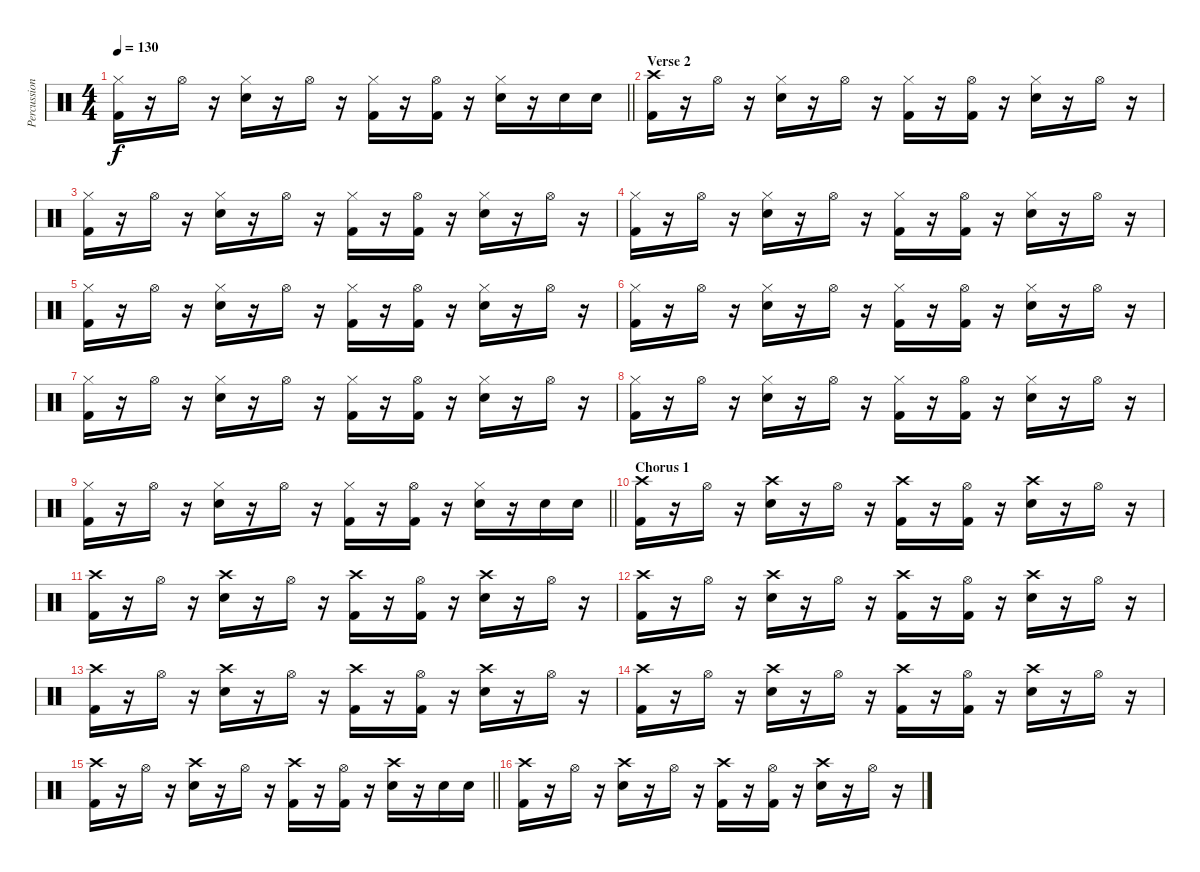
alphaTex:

\track ("Percussion" "Percussion") {instrument percussion}
\staff {score}
\articulation defaults
\ts (4 4)
\tempo 130
\clef neutral
\barLineRight lightlight
\ks c
("Hi-Hat (closed)" "Kick (hit) 2").16{dy f} r.16 "Hi-Hat (open)".16 r.16 ("Hi-Hat (closed)" "Snare (hit) 2").16 r.16 "Hi-Hat (open)".16 r.16 ("Hi-Hat (closed)" "Kick (hit) 2").16 r.16 ("Hi-Hat (open)" "Kick (hit) 2").16 r.16 ("Hi-Hat (closed)" "Snare (hit) 2").16 r.16 "Snare (hit) 2".16 "Snare (hit) 2".16 |
\section ("" "Verse 2")
("Crash high (hit)" "Kick (hit) 2").16 r.16 "Hi-Hat (open)".16 r.16 ("Hi-Hat (closed)" "Snare (hit) 2").16 r.16 "Hi-Hat (open)".16 r.16 ("Hi-Hat (closed)" "Kick (hit) 2").16 r.16 ("Hi-Hat (open)" "Kick (hit) 2").16 r.16 ("Hi-Hat (closed)" "Snare (hit) 2").16 r.16 "Hi-Hat (open)".16 r.16 |
("Hi-Hat (closed)" "Kick (hit) 2").16 r.16 "Hi-Hat (open)".16 r.16 ("Hi-Hat (closed)" "Snare (hit) 2").16 r.16 "Hi-Hat (open)".16 r.16 ("Hi-Hat (closed)" "Kick (hit) 2").16 r.16 ("Hi-Hat (open)" "Kick (hit) 2").16 r.16 ("Hi-Hat (closed)" "Snare (hit) 2").16 r.16 "Hi-Hat (open)".16 r.16 |
("Hi-Hat (closed)" "Kick (hit) 2").16 r.16 "Hi-Hat (open)".16 r.16 ("Hi-Hat (closed)" "Snare (hit) 2").16 r.16 "Hi-Hat (open)".16 r.16 ("Hi-Hat (closed)" "Kick (hit) 2").16 r.16 ("Hi-Hat (open)" "Kick (hit) 2").16 r.16 ("Hi-Hat (closed)" "Snare (hit) 2").16 r.16 "Hi-Hat (open)".16 r.16 |
("Hi-Hat (closed)" "Kick (hit) 2").16 r.16 "Hi-Hat (open)".16 r.16 ("Hi-Hat (closed)" "Snare (hit) 2").16 r.16 "Hi-Hat (open)".16 r.16 ("Hi-Hat (closed)" "Kick (hit) 2").16 r.16 ("Hi-Hat (open)" "Kick (hit) 2").16 r.16 ("Hi-Hat (closed)" "Snare (hit) 2").16 r.16 "Hi-Hat (open)".16 r.16 |
("Hi-Hat (closed)" "Kick (hit) 2").16 r.16 "Hi-Hat (open)".16 r.16 ("Hi-Hat (closed)" "Snare (hit) 2").16 r.16 "Hi-Hat (open)".16 r.16 ("Hi-Hat (closed)" "Kick (hit) 2").16 r.16 ("Hi-Hat (open)" "Kick (hit) 2").16 r.16 ("Hi-Hat (closed)" "Snare (hit) 2").16 r.16 "Hi-Hat (open)".16 r.16 |
("Hi-Hat (closed)" "Kick (hit) 2").16 r.16 "Hi-Hat (open)".16 r.16 ("Hi-Hat (closed)" "Snare (hit) 2").16 r.16 "Hi-Hat (open)".16 r.16 ("Hi-Hat (closed)" "Kick (hit) 2").16 r.16 ("Hi-Hat (open)" "Kick (hit) 2").16 r.16 ("Hi-Hat (closed)" "Snare (hit) 2").16 r.16 "Hi-Hat (open)".16 r.16 |
("Hi-Hat (closed)" "Kick (hit) 2").16 r.16 "Hi-Hat (open)".16 r.16 ("Hi-Hat (closed)" "Snare (hit) 2").16 r.16 "Hi-Hat (open)".16 r.16 ("Hi-Hat (closed)" "Kick (hit) 2").16 r.16 ("Hi-Hat (open)" "Kick (hit) 2").16 r.16 ("Hi-Hat (closed)" "Snare (hit) 2").16 r.16 "Hi-Hat (open)".16 r.16 |
\barLineRight lightlight
("Hi-Hat (closed)" "Kick (hit) 2").16 r.16 "Hi-Hat (open)".16 r.16 ("Hi-Hat (closed)" "Snare (hit) 2").16 r.16 "Hi-Hat (open)".16 r.16 ("Hi-Hat (closed)" "Kick (hit) 2").16 r.16 ("Hi-Hat (open)" "Kick (hit) 2").16 r.16 ("Hi-Hat (closed)" "Snare (hit) 2").16 r.16 "Snare (hit) 2".16 "Snare (hit) 2".16 |
\section ("" "Chorus 1")
("Crash high (hit)" "Kick (hit) 2").16 r.16 "Hi-Hat (open)".16 r.16 ("Crash high (hit)" "Snare (hit) 2").16 r.16 "Hi-Hat (open)".16 r.16 ("Crash high (hit)" "Kick (hit) 2").16 r.16 ("Hi-Hat (open)" "Kick (hit) 2").16 r.16 ("Crash high (hit)" "Snare (hit) 2").16 r.16 "Hi-Hat (open)".16 r.16 |
("Crash high (hit)" "Kick (hit) 2").16 r.16 "Hi-Hat (open)".16 r.16 ("Crash high (hit)" "Snare (hit) 2").16 r.16 "Hi-Hat (open)".16 r.16 ("Crash high (hit)" "Kick (hit) 2").16 r.16 ("Hi-Hat (open)" "Kick (hit) 2").16 r.16 ("Crash high (hit)" "Snare (hit) 2").16 r.16 "Hi-Hat (open)".16 r.16 |
("Crash high (hit)" "Kick (hit) 2").16 r.16 "Hi-Hat (open)".16 r.16 ("Crash high (hit)" "Snare (hit) 2").16 r.16 "Hi-Hat (open)".16 r.16 ("Crash high (hit)" "Kick (hit) 2").16 r.16 ("Hi-Hat (open)" "Kick (hit) 2").16 r.16 ("Crash high (hit)" "Snare (hit) 2").16 r.16 "Hi-Hat (open)".16 r.16 |
("Crash high (hit)" "Kick (hit) 2").16 r.16 "Hi-Hat (open)".16 r.16 ("Crash high (hit)" "Snare (hit) 2").16 r.16 "Hi-Hat (open)".16 r.16 ("Crash high (hit)" "Kick (hit) 2").16 r.16 ("Hi-Hat (open)" "Kick (hit) 2").16 r.16 ("Crash high (hit)" "Snare (hit) 2").16 r.16 "Hi-Hat (open)".16 r.16 |
("Crash high (hit)" "Kick (hit) 2").16 r.16 "Hi-Hat (open)".16 r.16 ("Crash high (hit)" "Snare (hit) 2").16 r.16 "Hi-Hat (open)".16 r.16 ("Crash high (hit)" "Kick (hit) 2").16 r.16 ("Hi-Hat (open)" "Kick (hit) 2").16 r.16 ("Crash high (hit)" "Snare (hit) 2").16 r.16 "Hi-Hat (open)".16 r.16 |
\barLineRight lightlight
("Crash high (hit)" "Kick (hit) 2").16 r.16 "Hi-Hat (open)".16 r.16 ("Crash high (hit)" "Snare (hit) 2").16 r.16 "Hi-Hat (open)".16 r.16 ("Crash high (hit)" "Kick (hit) 2").16 r.16 ("Hi-Hat (open)" "Kick (hit) 2").16 r.16 ("Crash high (hit)" "Snare (hit) 2").16 r.16 "Snare (hit) 2".16 "Snare (hit) 2".16 |
("Crash high (hit)" "Kick (hit) 2").16 r.16 "Hi-Hat (open)".16 r.16 ("Crash high (hit)" "Snare (hit) 2").16 r.16 "Hi-Hat (open)".16 r.16 ("Crash high (hit)" "Kick (hit) 2").16 r.16 ("Hi-Hat (open)" "Kick (hit) 2").16 r.16 ("Crash high (hit)" "Snare (hit) 2").16 r.16 "Hi-Hat (open)".16 r.16
